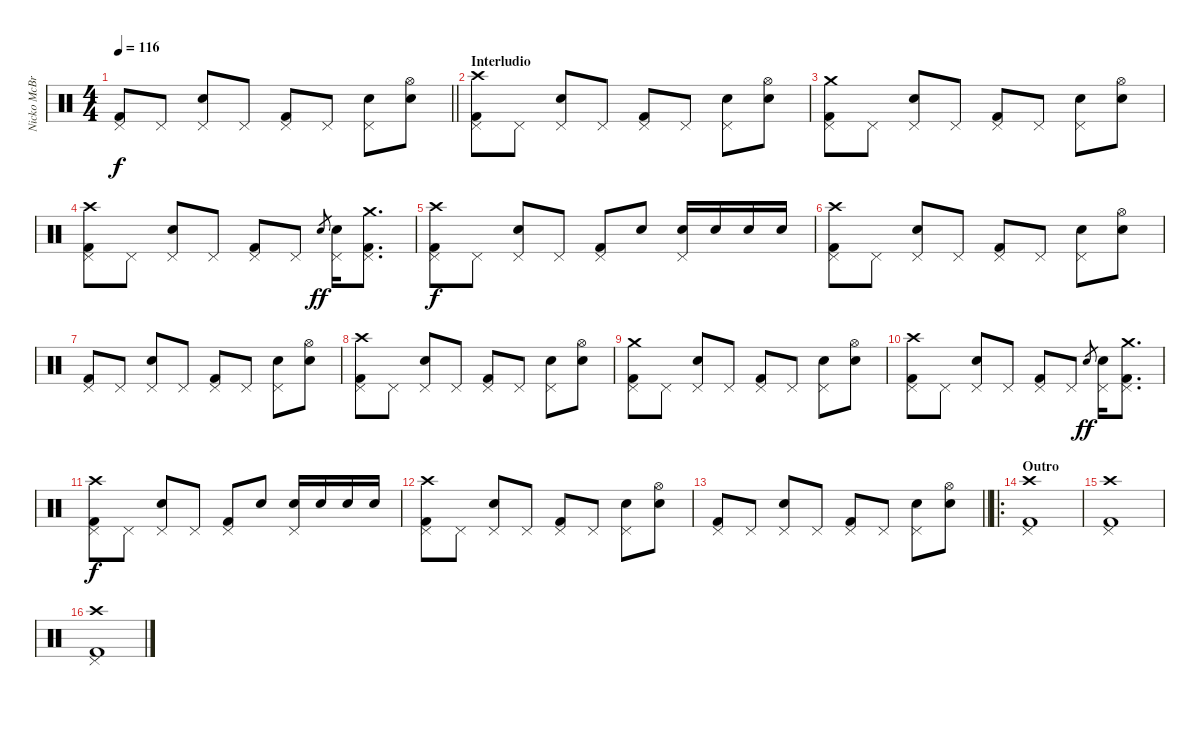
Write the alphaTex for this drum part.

\track ("Nicko McBrain" "Nicko McBr") {instrument percussion}
\staff {score}
\articulation defaults
\ts (4 4)
\tempo 116
\clef neutral
\barLineRight lightlight
\ks c
("Kick (hit) 2" "Pedal Hi-Hat (hit)").8{dy f} "Pedal Hi-Hat (hit)".8 ("Snare (hit) 2" "Pedal Hi-Hat (hit)").8 "Pedal Hi-Hat (hit)".8 ("Kick (hit) 2" "Pedal Hi-Hat (hit)").8 "Pedal Hi-Hat (hit)".8 ("Snare (hit) 2" "Pedal Hi-Hat (hit)").8 ("Snare (hit) 2" "Hi-Hat (open)").8 |
\section ("" "Interludio")
("Kick (hit) 2" "Pedal Hi-Hat (hit)" "Crash high (hit)").8 "Pedal Hi-Hat (hit)".8 ("Snare (hit) 2" "Pedal Hi-Hat (hit)").8 "Pedal Hi-Hat (hit)".8 ("Kick (hit) 2" "Pedal Hi-Hat (hit)").8 "Pedal Hi-Hat (hit)".8 ("Snare (hit) 2" "Pedal Hi-Hat (hit)").8 ("Snare (hit) 2" "Hi-Hat (open)").8 |
("Kick (hit) 2" "Pedal Hi-Hat (hit)" "Crash medium (hit)").8 "Pedal Hi-Hat (hit)".8 ("Snare (hit) 2" "Pedal Hi-Hat (hit)").8 "Pedal Hi-Hat (hit)".8 ("Kick (hit) 2" "Pedal Hi-Hat (hit)").8 "Pedal Hi-Hat (hit)".8 ("Snare (hit) 2" "Pedal Hi-Hat (hit)").8 ("Snare (hit) 2" "Hi-Hat (open)").8 |
("Kick (hit) 2" "Pedal Hi-Hat (hit)" "Crash high (hit)").8 "Pedal Hi-Hat (hit)".8 ("Snare (hit) 2" "Pedal Hi-Hat (hit)").8 "Pedal Hi-Hat (hit)".8 ("Kick (hit) 2" "Pedal Hi-Hat (hit)").8 "Pedal Hi-Hat (hit)".8 "Snare (hit) 2".8{gr dy ff} ("Snare (hit) 2" "Pedal Hi-Hat (hit)").16 ("Pedal Hi-Hat (hit)" "Crash medium (hit)" "Kick (hit) 2").8{d} |
("Kick (hit) 2" "Pedal Hi-Hat (hit)" "Crash high (hit)").8{dy f} "Pedal Hi-Hat (hit)".8 ("Snare (hit) 2" "Pedal Hi-Hat (hit)").8 "Pedal Hi-Hat (hit)".8 ("Kick (hit) 2" "Pedal Hi-Hat (hit)").8 "Snare (hit) 2".8 ("Snare (hit) 2" "Pedal Hi-Hat (hit)").16 "Snare (hit) 2".16 "Snare (hit) 2".16 "Snare (hit) 2".16 |
("Kick (hit) 2" "Pedal Hi-Hat (hit)" "Crash high (hit)").8 "Pedal Hi-Hat (hit)".8 ("Snare (hit) 2" "Pedal Hi-Hat (hit)").8 "Pedal Hi-Hat (hit)".8 ("Kick (hit) 2" "Pedal Hi-Hat (hit)").8 "Pedal Hi-Hat (hit)".8 ("Snare (hit) 2" "Pedal Hi-Hat (hit)").8 ("Snare (hit) 2" "Hi-Hat (open)").8 |
("Kick (hit) 2" "Pedal Hi-Hat (hit)").8 "Pedal Hi-Hat (hit)".8 ("Snare (hit) 2" "Pedal Hi-Hat (hit)").8 "Pedal Hi-Hat (hit)".8 ("Kick (hit) 2" "Pedal Hi-Hat (hit)").8 "Pedal Hi-Hat (hit)".8 ("Snare (hit) 2" "Pedal Hi-Hat (hit)").8 ("Snare (hit) 2" "Hi-Hat (open)").8 |
("Kick (hit) 2" "Pedal Hi-Hat (hit)" "Crash high (hit)").8 "Pedal Hi-Hat (hit)".8 ("Snare (hit) 2" "Pedal Hi-Hat (hit)").8 "Pedal Hi-Hat (hit)".8 ("Kick (hit) 2" "Pedal Hi-Hat (hit)").8 "Pedal Hi-Hat (hit)".8 ("Snare (hit) 2" "Pedal Hi-Hat (hit)").8 ("Snare (hit) 2" "Hi-Hat (open)").8 |
("Kick (hit) 2" "Pedal Hi-Hat (hit)" "Crash medium (hit)").8 "Pedal Hi-Hat (hit)".8 ("Snare (hit) 2" "Pedal Hi-Hat (hit)").8 "Pedal Hi-Hat (hit)".8 ("Kick (hit) 2" "Pedal Hi-Hat (hit)").8 "Pedal Hi-Hat (hit)".8 ("Snare (hit) 2" "Pedal Hi-Hat (hit)").8 ("Snare (hit) 2" "Hi-Hat (open)").8 |
("Kick (hit) 2" "Pedal Hi-Hat (hit)" "Crash high (hit)").8 "Pedal Hi-Hat (hit)".8 ("Snare (hit) 2" "Pedal Hi-Hat (hit)").8 "Pedal Hi-Hat (hit)".8 ("Kick (hit) 2" "Pedal Hi-Hat (hit)").8 "Pedal Hi-Hat (hit)".8 "Snare (hit) 2".8{gr dy ff} ("Snare (hit) 2" "Pedal Hi-Hat (hit)").16 ("Pedal Hi-Hat (hit)" "Crash medium (hit)" "Kick (hit) 2").8{d} |
("Kick (hit) 2" "Pedal Hi-Hat (hit)" "Crash high (hit)").8{dy f} "Pedal Hi-Hat (hit)".8 ("Snare (hit) 2" "Pedal Hi-Hat (hit)").8 "Pedal Hi-Hat (hit)".8 ("Kick (hit) 2" "Pedal Hi-Hat (hit)").8 "Snare (hit) 2".8 ("Snare (hit) 2" "Pedal Hi-Hat (hit)").16 "Snare (hit) 2".16 "Snare (hit) 2".16 "Snare (hit) 2".16 |
("Kick (hit) 2" "Pedal Hi-Hat (hit)" "Crash high (hit)").8 "Pedal Hi-Hat (hit)".8 ("Snare (hit) 2" "Pedal Hi-Hat (hit)").8 "Pedal Hi-Hat (hit)".8 ("Kick (hit) 2" "Pedal Hi-Hat (hit)").8 "Pedal Hi-Hat (hit)".8 ("Snare (hit) 2" "Pedal Hi-Hat (hit)").8 ("Snare (hit) 2" "Hi-Hat (open)").8 |
\barLineRight lightlight
("Kick (hit) 2" "Pedal Hi-Hat (hit)").8 "Pedal Hi-Hat (hit)".8 ("Snare (hit) 2" "Pedal Hi-Hat (hit)").8 "Pedal Hi-Hat (hit)".8 ("Kick (hit) 2" "Pedal Hi-Hat (hit)").8 "Pedal Hi-Hat (hit)".8 ("Snare (hit) 2" "Pedal Hi-Hat (hit)").8 ("Snare (hit) 2" "Hi-Hat (open)").8 |
\ro
\section ("" "Outro")
("Kick (hit) 2" "Pedal Hi-Hat (hit)" "Crash high (hit)").1 |
("Kick (hit) 2" "Pedal Hi-Hat (hit)" "Crash high (hit)").1 |
("Kick (hit) 2" "Pedal Hi-Hat (hit)" "Crash high (hit)").1
